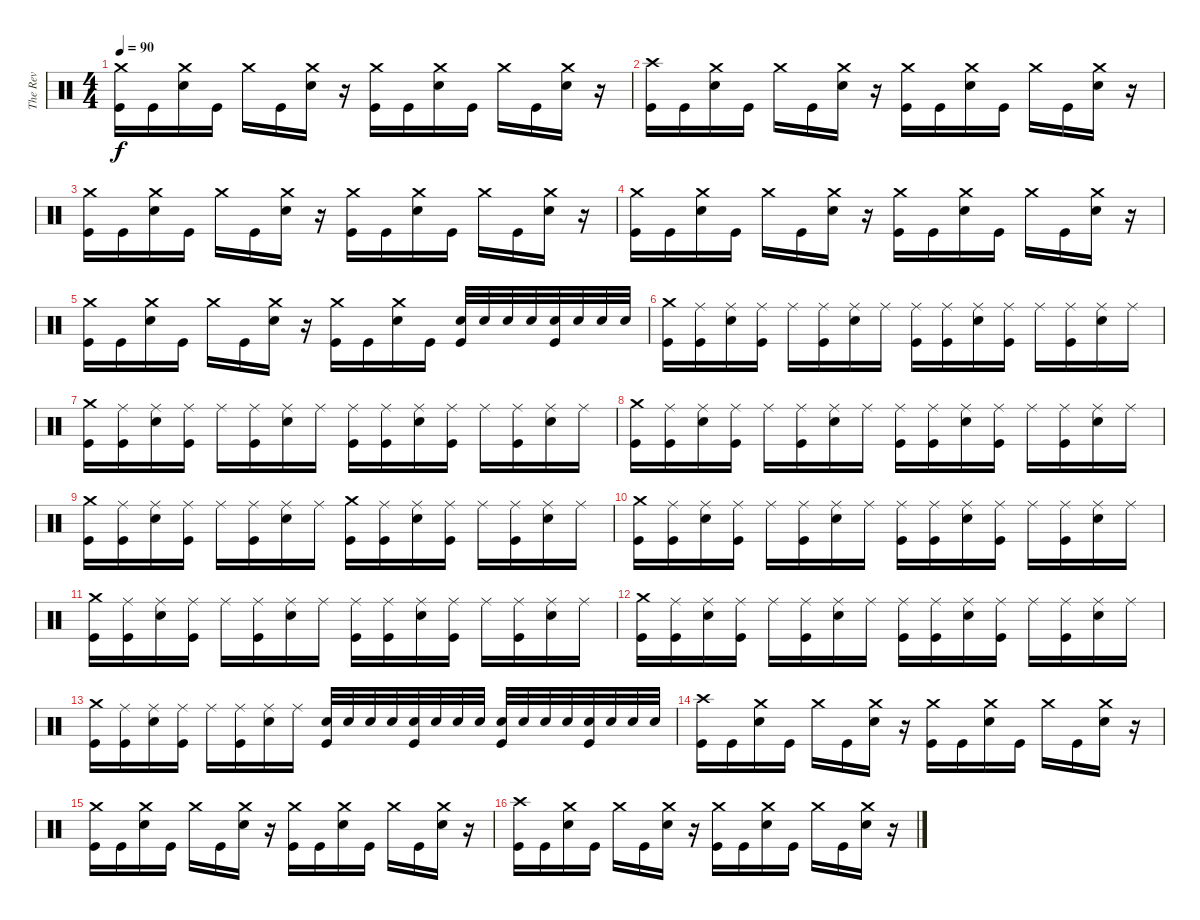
\track ("The Rev" "The Rev") {instrument percussion}
\staff {score}
\articulation defaults
\ts (4 4)
\tempo 90
\clef neutral
\ks c
("Crash medium (hit)" "Kick (hit)").16{dy f} "Kick (hit)".16 ("Crash medium (hit)" "Electric Snare (hit)").16 "Kick (hit)".16 "Crash medium (hit)".16 "Kick (hit)".16 ("Crash medium (hit)" "Electric Snare (hit)").16 r.16 ("Crash medium (hit)" "Kick (hit)").16 "Kick (hit)".16 ("Crash medium (hit)" "Electric Snare (hit)").16 "Kick (hit)".16 "Crash medium (hit)".16 "Kick (hit)".16 ("Crash medium (hit)" "Electric Snare (hit)").16 r.16 |
("Crash high (hit)" "Kick (hit)").16 "Kick (hit)".16 ("Crash medium (hit)" "Electric Snare (hit)").16 "Kick (hit)".16 "Crash medium (hit)".16 "Kick (hit)".16 ("Crash medium (hit)" "Electric Snare (hit)").16 r.16 ("Crash medium (hit)" "Kick (hit)").16 "Kick (hit)".16 ("Crash medium (hit)" "Electric Snare (hit)").16 "Kick (hit)".16 "Crash medium (hit)".16 "Kick (hit)".16 ("Crash medium (hit)" "Electric Snare (hit)").16 r.16 |
("Crash medium (hit)" "Kick (hit)").16 "Kick (hit)".16 ("Crash medium (hit)" "Electric Snare (hit)").16 "Kick (hit)".16 "Crash medium (hit)".16 "Kick (hit)".16 ("Crash medium (hit)" "Electric Snare (hit)").16 r.16 ("Crash medium (hit)" "Kick (hit)").16 "Kick (hit)".16 ("Crash medium (hit)" "Electric Snare (hit)").16 "Kick (hit)".16 "Crash medium (hit)".16 "Kick (hit)".16 ("Crash medium (hit)" "Electric Snare (hit)").16 r.16 |
("Crash medium (hit)" "Kick (hit)").16 "Kick (hit)".16 ("Crash medium (hit)" "Electric Snare (hit)").16 "Kick (hit)".16 "Crash medium (hit)".16 "Kick (hit)".16 ("Crash medium (hit)" "Electric Snare (hit)").16 r.16 ("Crash medium (hit)" "Kick (hit)").16 "Kick (hit)".16 ("Crash medium (hit)" "Electric Snare (hit)").16 "Kick (hit)".16 "Crash medium (hit)".16 "Kick (hit)".16 ("Crash medium (hit)" "Electric Snare (hit)").16 r.16 |
("Crash medium (hit)" "Kick (hit)").16 "Kick (hit)".16 ("Crash medium (hit)" "Electric Snare (hit)").16 "Kick (hit)".16 "Crash medium (hit)".16 "Kick (hit)".16 ("Crash medium (hit)" "Electric Snare (hit)").16 r.16 ("Crash medium (hit)" "Kick (hit)").16 "Kick (hit)".16 ("Crash medium (hit)" "Electric Snare (hit)").16 "Kick (hit)".16 ("Electric Snare (hit)" "Kick (hit)").32 "Electric Snare (hit)".32 "Electric Snare (hit)".32 "Electric Snare (hit)".32 ("Electric Snare (hit)" "Kick (hit)").32 "Electric Snare (hit)".32 "Electric Snare (hit)".32 "Electric Snare (hit)".32 |
("Crash medium (hit)" "Kick (hit)").16 ("Ride (middle)" "Kick (hit)").16 ("Ride (middle)" "Electric Snare (hit)").16 ("Ride (middle)" "Kick (hit)").16 "Ride (middle)".16 ("Ride (middle)" "Kick (hit)").16 ("Ride (middle)" "Electric Snare (hit)").16 "Ride (middle)".16 ("Ride (middle)" "Kick (hit)").16 ("Ride (middle)" "Kick (hit)").16 ("Ride (middle)" "Electric Snare (hit)").16 ("Ride (middle)" "Kick (hit)").16 "Ride (middle)".16 ("Ride (middle)" "Kick (hit)").16 ("Ride (middle)" "Electric Snare (hit)").16 "Ride (middle)".16 |
("Crash medium (hit)" "Kick (hit)").16 ("Ride (middle)" "Kick (hit)").16 ("Ride (middle)" "Electric Snare (hit)").16 ("Ride (middle)" "Kick (hit)").16 "Ride (middle)".16 ("Ride (middle)" "Kick (hit)").16 ("Ride (middle)" "Electric Snare (hit)").16 "Ride (middle)".16 ("Ride (middle)" "Kick (hit)").16 ("Ride (middle)" "Kick (hit)").16 ("Ride (middle)" "Electric Snare (hit)").16 ("Ride (middle)" "Kick (hit)").16 "Ride (middle)".16 ("Ride (middle)" "Kick (hit)").16 ("Ride (middle)" "Electric Snare (hit)").16 "Ride (middle)".16 |
("Crash medium (hit)" "Kick (hit)").16 ("Ride (middle)" "Kick (hit)").16 ("Ride (middle)" "Electric Snare (hit)").16 ("Ride (middle)" "Kick (hit)").16 "Ride (middle)".16 ("Ride (middle)" "Kick (hit)").16 ("Ride (middle)" "Electric Snare (hit)").16 "Ride (middle)".16 ("Ride (middle)" "Kick (hit)").16 ("Ride (middle)" "Kick (hit)").16 ("Ride (middle)" "Electric Snare (hit)").16 ("Ride (middle)" "Kick (hit)").16 "Ride (middle)".16 ("Ride (middle)" "Kick (hit)").16 ("Ride (middle)" "Electric Snare (hit)").16 "Ride (middle)".16 |
("Crash medium (hit)" "Kick (hit)").16 ("Ride (middle)" "Kick (hit)").16 ("Ride (middle)" "Electric Snare (hit)").16 ("Ride (middle)" "Kick (hit)").16 "Ride (middle)".16 ("Ride (middle)" "Kick (hit)").16 ("Ride (middle)" "Electric Snare (hit)").16 "Ride (middle)".16 ("Crash medium (hit)" "Kick (hit)").16 ("Ride (middle)" "Kick (hit)").16 ("Ride (middle)" "Electric Snare (hit)").16 ("Ride (middle)" "Kick (hit)").16 "Ride (middle)".16 ("Ride (middle)" "Kick (hit)").16 ("Ride (middle)" "Electric Snare (hit)").16 "Ride (middle)".16 |
("Crash medium (hit)" "Kick (hit)").16 ("Ride (middle)" "Kick (hit)").16 ("Ride (middle)" "Electric Snare (hit)").16 ("Ride (middle)" "Kick (hit)").16 "Ride (middle)".16 ("Ride (middle)" "Kick (hit)").16 ("Ride (middle)" "Electric Snare (hit)").16 "Ride (middle)".16 ("Ride (middle)" "Kick (hit)").16 ("Ride (middle)" "Kick (hit)").16 ("Ride (middle)" "Electric Snare (hit)").16 ("Ride (middle)" "Kick (hit)").16 "Ride (middle)".16 ("Ride (middle)" "Kick (hit)").16 ("Ride (middle)" "Electric Snare (hit)").16 "Ride (middle)".16 |
("Crash medium (hit)" "Kick (hit)").16 ("Ride (middle)" "Kick (hit)").16 ("Ride (middle)" "Electric Snare (hit)").16 ("Ride (middle)" "Kick (hit)").16 "Ride (middle)".16 ("Ride (middle)" "Kick (hit)").16 ("Ride (middle)" "Electric Snare (hit)").16 "Ride (middle)".16 ("Ride (middle)" "Kick (hit)").16 ("Ride (middle)" "Kick (hit)").16 ("Ride (middle)" "Electric Snare (hit)").16 ("Ride (middle)" "Kick (hit)").16 "Ride (middle)".16 ("Ride (middle)" "Kick (hit)").16 ("Ride (middle)" "Electric Snare (hit)").16 "Ride (middle)".16 |
("Crash medium (hit)" "Kick (hit)").16 ("Ride (middle)" "Kick (hit)").16 ("Ride (middle)" "Electric Snare (hit)").16 ("Ride (middle)" "Kick (hit)").16 "Ride (middle)".16 ("Ride (middle)" "Kick (hit)").16 ("Ride (middle)" "Electric Snare (hit)").16 "Ride (middle)".16 ("Ride (middle)" "Kick (hit)").16 ("Ride (middle)" "Kick (hit)").16 ("Ride (middle)" "Electric Snare (hit)").16 ("Ride (middle)" "Kick (hit)").16 "Ride (middle)".16 ("Ride (middle)" "Kick (hit)").16 ("Ride (middle)" "Electric Snare (hit)").16 "Ride (middle)".16 |
("Crash medium (hit)" "Kick (hit)").16 ("Ride (middle)" "Kick (hit)").16 ("Ride (middle)" "Electric Snare (hit)").16 ("Ride (middle)" "Kick (hit)").16 "Ride (middle)".16 ("Ride (middle)" "Kick (hit)").16 ("Ride (middle)" "Electric Snare (hit)").16 "Ride (middle)".16 ("Electric Snare (hit)" "Kick (hit)").32 "Electric Snare (hit)".32 "Electric Snare (hit)".32 "Electric Snare (hit)".32 ("Electric Snare (hit)" "Kick (hit)").32 "Electric Snare (hit)".32 "Electric Snare (hit)".32 "Electric Snare (hit)".32 ("Electric Snare (hit)" "Kick (hit)").32 "Electric Snare (hit)".32 "Electric Snare (hit)".32 "Electric Snare (hit)".32 ("Electric Snare (hit)" "Kick (hit)").32 "Electric Snare (hit)".32 "Electric Snare (hit)".32 "Electric Snare (hit)".32 |
("Crash high (hit)" "Kick (hit)").16 "Kick (hit)".16 ("Crash medium (hit)" "Electric Snare (hit)").16 "Kick (hit)".16 "Crash medium (hit)".16 "Kick (hit)".16 ("Crash medium (hit)" "Electric Snare (hit)").16 r.16 ("Crash medium (hit)" "Kick (hit)").16 "Kick (hit)".16 ("Crash medium (hit)" "Electric Snare (hit)").16 "Kick (hit)".16 "Crash medium (hit)".16 "Kick (hit)".16 ("Crash medium (hit)" "Electric Snare (hit)").16 r.16 |
("Crash medium (hit)" "Kick (hit)").16 "Kick (hit)".16 ("Crash medium (hit)" "Electric Snare (hit)").16 "Kick (hit)".16 "Crash medium (hit)".16 "Kick (hit)".16 ("Crash medium (hit)" "Electric Snare (hit)").16 r.16 ("Crash medium (hit)" "Kick (hit)").16 "Kick (hit)".16 ("Crash medium (hit)" "Electric Snare (hit)").16 "Kick (hit)".16 "Crash medium (hit)".16 "Kick (hit)".16 ("Crash medium (hit)" "Electric Snare (hit)").16 r.16 |
("Crash high (hit)" "Kick (hit)").16 "Kick (hit)".16 ("Crash medium (hit)" "Electric Snare (hit)").16 "Kick (hit)".16 "Crash medium (hit)".16 "Kick (hit)".16 ("Crash medium (hit)" "Electric Snare (hit)").16 r.16 ("Crash medium (hit)" "Kick (hit)").16 "Kick (hit)".16 ("Crash medium (hit)" "Electric Snare (hit)").16 "Kick (hit)".16 "Crash medium (hit)".16 "Kick (hit)".16 ("Crash medium (hit)" "Electric Snare (hit)").16 r.16
